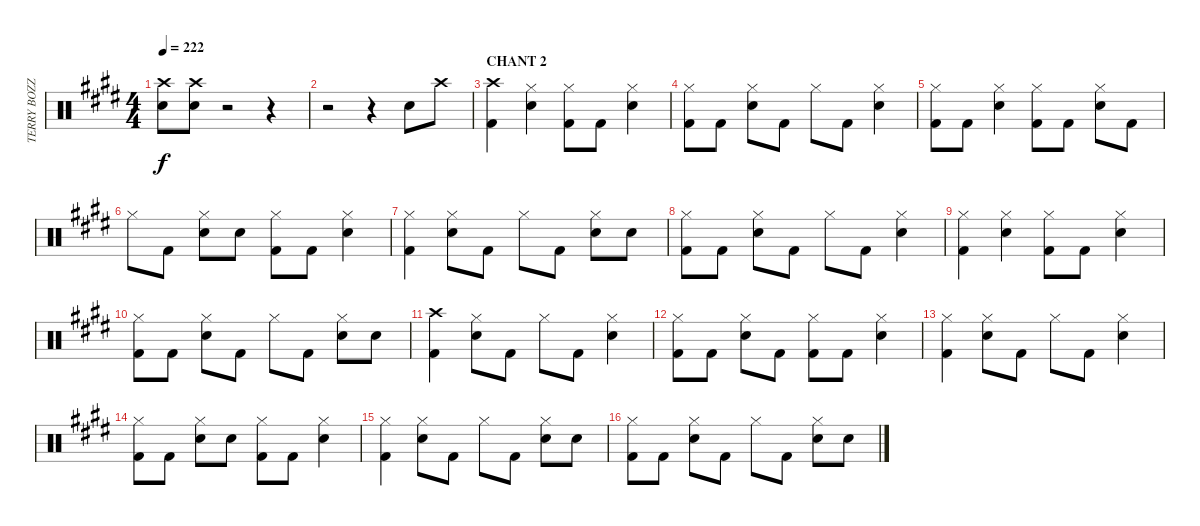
\track ("TERRY BOZZIO" "TERRY BOZZ") {instrument percussion}
\staff {score}
\articulation defaults
\ts (4 4)
\tempo 222
\clef neutral
\ks c#minor
("Crash high (hit)" "Snare (hit) 2").8{dy f} ("Crash high (hit)" "Snare (hit) 2").8 r.2 r.4 |
r.2 r.4 "Snare (hit) 2".8 "Crash high (hit)".8 |
\section ("" "CHANT 2")
("Crash high (hit)" "Kick (hit) 2").4 ("Hi-Hat (closed)" "Snare (hit) 2").4 ("Hi-Hat (closed)" "Kick (hit) 2").8 "Kick (hit) 2".8 ("Hi-Hat (closed)" "Snare (hit) 2").4 |
("Hi-Hat (closed)" "Kick (hit) 2").8 "Kick (hit) 2".8 ("Hi-Hat (closed)" "Snare (hit) 2").8 "Kick (hit) 2".8 "Hi-Hat (closed)".8 "Kick (hit) 2".8 ("Hi-Hat (closed)" "Snare (hit) 2").4 |
("Hi-Hat (closed)" "Kick (hit) 2").8 "Kick (hit) 2".8 ("Hi-Hat (closed)" "Snare (hit) 2").4 ("Hi-Hat (closed)" "Kick (hit) 2").8 "Kick (hit) 2".8 ("Hi-Hat (closed)" "Snare (hit) 2").8 "Kick (hit) 2".8 |
"Hi-Hat (closed)".8 "Kick (hit) 2".8 ("Hi-Hat (closed)" "Snare (hit) 2").8 "Snare (hit) 2".8 ("Hi-Hat (closed)" "Kick (hit) 2").8 "Kick (hit) 2".8 ("Hi-Hat (closed)" "Snare (hit) 2").4 |
("Hi-Hat (closed)" "Kick (hit) 2").4 ("Hi-Hat (closed)" "Snare (hit) 2").8 "Kick (hit) 2".8 "Hi-Hat (closed)".8 "Kick (hit) 2".8 ("Hi-Hat (closed)" "Snare (hit) 2").8 "Snare (hit) 2".8 |
("Hi-Hat (closed)" "Kick (hit) 2").8 "Kick (hit) 2".8 ("Hi-Hat (closed)" "Snare (hit) 2").8 "Kick (hit) 2".8 "Hi-Hat (closed)".8 "Kick (hit) 2".8 ("Hi-Hat (closed)" "Snare (hit) 2").4 |
("Hi-Hat (closed)" "Kick (hit) 2").4 ("Hi-Hat (closed)" "Snare (hit) 2").4 ("Hi-Hat (closed)" "Kick (hit) 2").8 "Kick (hit) 2".8 ("Hi-Hat (closed)" "Snare (hit) 2").4 |
("Hi-Hat (closed)" "Kick (hit) 2").8 "Kick (hit) 2".8 ("Hi-Hat (closed)" "Snare (hit) 2").8 "Kick (hit) 2".8 "Hi-Hat (closed)".8 "Kick (hit) 2".8 ("Hi-Hat (closed)" "Snare (hit) 2").8 "Snare (hit) 2".8 |
("Crash high (hit)" "Kick (hit) 2").4 ("Hi-Hat (closed)" "Snare (hit) 2").8 "Kick (hit) 2".8 "Hi-Hat (closed)".8 "Kick (hit) 2".8 ("Hi-Hat (closed)" "Snare (hit) 2").4 |
("Hi-Hat (closed)" "Kick (hit) 2").8 "Kick (hit) 2".8 ("Hi-Hat (closed)" "Snare (hit) 2").8 "Kick (hit) 2".8 ("Hi-Hat (closed)" "Kick (hit) 2").8 "Kick (hit) 2".8 ("Hi-Hat (closed)" "Snare (hit) 2").4 |
("Hi-Hat (closed)" "Kick (hit) 2").4 ("Hi-Hat (closed)" "Snare (hit) 2").8 "Kick (hit) 2".8 "Hi-Hat (closed)".8 "Kick (hit) 2".8 ("Hi-Hat (closed)" "Snare (hit) 2").4 |
("Hi-Hat (closed)" "Kick (hit) 2").8 "Kick (hit) 2".8 ("Hi-Hat (closed)" "Snare (hit) 2").8 "Snare (hit) 2".8 ("Hi-Hat (closed)" "Kick (hit) 2").8 "Kick (hit) 2".8 ("Hi-Hat (closed)" "Snare (hit) 2").4 |
("Hi-Hat (closed)" "Kick (hit) 2").4 ("Hi-Hat (closed)" "Snare (hit) 2").8 "Kick (hit) 2".8 "Hi-Hat (closed)".8 "Kick (hit) 2".8 ("Hi-Hat (closed)" "Snare (hit) 2").8 "Snare (hit) 2".8 |
("Hi-Hat (closed)" "Kick (hit) 2").8 "Kick (hit) 2".8 ("Hi-Hat (closed)" "Snare (hit) 2").8 "Kick (hit) 2".8 "Hi-Hat (closed)".8 "Kick (hit) 2".8 ("Hi-Hat (closed)" "Snare (hit) 2").8 "Snare (hit) 2".8
